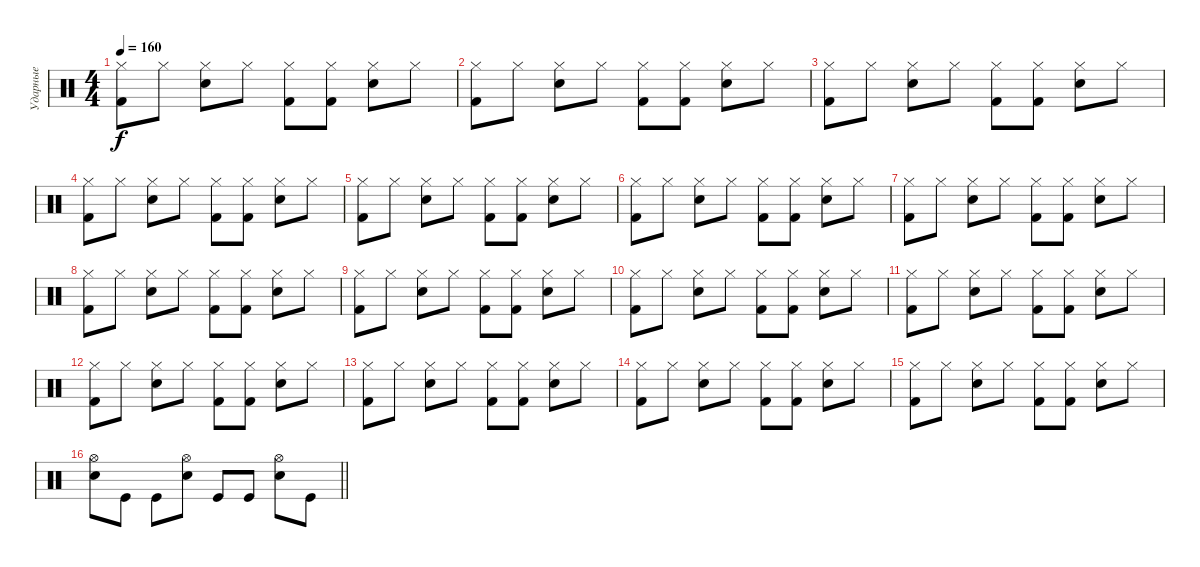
\track ("Ударные" "Ударные") {instrument percussion}
\staff {score}
\articulation defaults
\ts (4 4)
\tempo 160
\clef neutral
\ks c
("Kick (hit) 2" "Hi-Hat (closed)").8{dy f} "Hi-Hat (closed)".8 ("Hi-Hat (closed)" "Electric Snare (hit)").8 "Hi-Hat (closed)".8 ("Kick (hit) 2" "Hi-Hat (closed)").8 ("Kick (hit) 2" "Hi-Hat (closed)").8 ("Hi-Hat (closed)" "Electric Snare (hit)").8 "Hi-Hat (closed)".8 |
("Kick (hit) 2" "Hi-Hat (closed)").8 "Hi-Hat (closed)".8 ("Hi-Hat (closed)" "Electric Snare (hit)").8 "Hi-Hat (closed)".8 ("Kick (hit) 2" "Hi-Hat (closed)").8 ("Kick (hit) 2" "Hi-Hat (closed)").8 ("Hi-Hat (closed)" "Electric Snare (hit)").8 "Hi-Hat (closed)".8 |
("Kick (hit) 2" "Hi-Hat (closed)").8 "Hi-Hat (closed)".8 ("Hi-Hat (closed)" "Electric Snare (hit)").8 "Hi-Hat (closed)".8 ("Kick (hit) 2" "Hi-Hat (closed)").8 ("Kick (hit) 2" "Hi-Hat (closed)").8 ("Hi-Hat (closed)" "Electric Snare (hit)").8 "Hi-Hat (closed)".8 |
("Kick (hit) 2" "Hi-Hat (closed)").8 "Hi-Hat (closed)".8 ("Hi-Hat (closed)" "Electric Snare (hit)").8 "Hi-Hat (closed)".8 ("Kick (hit) 2" "Hi-Hat (closed)").8 ("Kick (hit) 2" "Hi-Hat (closed)").8 ("Hi-Hat (closed)" "Electric Snare (hit)").8 "Hi-Hat (closed)".8 |
("Kick (hit) 2" "Hi-Hat (closed)").8 "Hi-Hat (closed)".8 ("Hi-Hat (closed)" "Electric Snare (hit)").8 "Hi-Hat (closed)".8 ("Kick (hit) 2" "Hi-Hat (closed)").8 ("Kick (hit) 2" "Hi-Hat (closed)").8 ("Hi-Hat (closed)" "Electric Snare (hit)").8 "Hi-Hat (closed)".8 |
("Kick (hit) 2" "Hi-Hat (closed)").8 "Hi-Hat (closed)".8 ("Hi-Hat (closed)" "Electric Snare (hit)").8 "Hi-Hat (closed)".8 ("Kick (hit) 2" "Hi-Hat (closed)").8 ("Kick (hit) 2" "Hi-Hat (closed)").8 ("Hi-Hat (closed)" "Electric Snare (hit)").8 "Hi-Hat (closed)".8 |
("Kick (hit) 2" "Hi-Hat (closed)").8 "Hi-Hat (closed)".8 ("Hi-Hat (closed)" "Electric Snare (hit)").8 "Hi-Hat (closed)".8 ("Kick (hit) 2" "Hi-Hat (closed)").8 ("Kick (hit) 2" "Hi-Hat (closed)").8 ("Hi-Hat (closed)" "Electric Snare (hit)").8 "Hi-Hat (closed)".8 |
("Kick (hit) 2" "Hi-Hat (closed)").8 "Hi-Hat (closed)".8 ("Hi-Hat (closed)" "Electric Snare (hit)").8 "Hi-Hat (closed)".8 ("Kick (hit) 2" "Hi-Hat (closed)").8 ("Kick (hit) 2" "Hi-Hat (closed)").8 ("Hi-Hat (closed)" "Electric Snare (hit)").8 "Hi-Hat (closed)".8 |
("Kick (hit) 2" "Hi-Hat (closed)").8 "Hi-Hat (closed)".8 ("Hi-Hat (closed)" "Electric Snare (hit)").8 "Hi-Hat (closed)".8 ("Kick (hit) 2" "Hi-Hat (closed)").8 ("Kick (hit) 2" "Hi-Hat (closed)").8 ("Hi-Hat (closed)" "Electric Snare (hit)").8 "Hi-Hat (closed)".8 |
("Kick (hit) 2" "Hi-Hat (closed)").8 "Hi-Hat (closed)".8 ("Hi-Hat (closed)" "Electric Snare (hit)").8 "Hi-Hat (closed)".8 ("Kick (hit) 2" "Hi-Hat (closed)").8 ("Kick (hit) 2" "Hi-Hat (closed)").8 ("Hi-Hat (closed)" "Electric Snare (hit)").8 "Hi-Hat (closed)".8 |
("Kick (hit) 2" "Hi-Hat (closed)").8 "Hi-Hat (closed)".8 ("Hi-Hat (closed)" "Electric Snare (hit)").8 "Hi-Hat (closed)".8 ("Kick (hit) 2" "Hi-Hat (closed)").8 ("Kick (hit) 2" "Hi-Hat (closed)").8 ("Hi-Hat (closed)" "Electric Snare (hit)").8 "Hi-Hat (closed)".8 |
("Kick (hit) 2" "Hi-Hat (closed)").8 "Hi-Hat (closed)".8 ("Hi-Hat (closed)" "Electric Snare (hit)").8 "Hi-Hat (closed)".8 ("Kick (hit) 2" "Hi-Hat (closed)").8 ("Kick (hit) 2" "Hi-Hat (closed)").8 ("Hi-Hat (closed)" "Electric Snare (hit)").8 "Hi-Hat (closed)".8 |
("Kick (hit) 2" "Hi-Hat (closed)").8 "Hi-Hat (closed)".8 ("Hi-Hat (closed)" "Electric Snare (hit)").8 "Hi-Hat (closed)".8 ("Kick (hit) 2" "Hi-Hat (closed)").8 ("Kick (hit) 2" "Hi-Hat (closed)").8 ("Hi-Hat (closed)" "Electric Snare (hit)").8 "Hi-Hat (closed)".8 |
("Kick (hit) 2" "Hi-Hat (closed)").8 "Hi-Hat (closed)".8 ("Hi-Hat (closed)" "Electric Snare (hit)").8 "Hi-Hat (closed)".8 ("Kick (hit) 2" "Hi-Hat (closed)").8 ("Kick (hit) 2" "Hi-Hat (closed)").8 ("Hi-Hat (closed)" "Electric Snare (hit)").8 "Hi-Hat (closed)".8 |
("Kick (hit) 2" "Hi-Hat (closed)").8 "Hi-Hat (closed)".8 ("Hi-Hat (closed)" "Electric Snare (hit)").8 "Hi-Hat (closed)".8 ("Kick (hit) 2" "Hi-Hat (closed)").8 ("Kick (hit) 2" "Hi-Hat (closed)").8 ("Hi-Hat (closed)" "Electric Snare (hit)").8 "Hi-Hat (closed)".8 |
\barLineRight lightlight
("Hi-Hat (open)" "Electric Snare (hit)").8 "Kick (hit)".8 "Kick (hit)".8 ("Hi-Hat (open)" "Electric Snare (hit)").8 "Kick (hit)".8 "Kick (hit)".8 ("Hi-Hat (open)" "Electric Snare (hit)").8 "Kick (hit)".8
